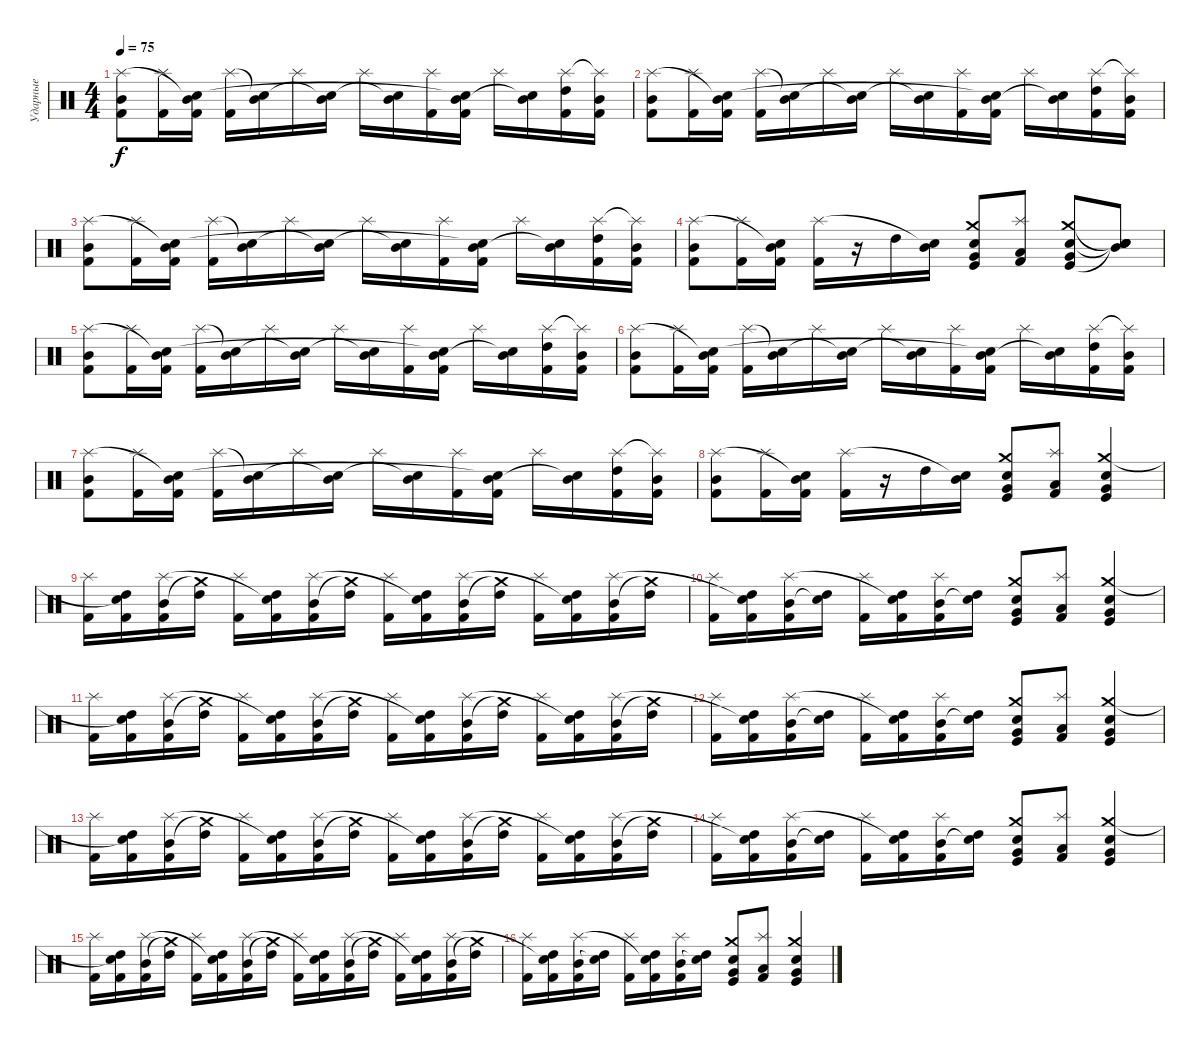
\track ("Ударные" "Ударные") {instrument percussion}
\staff {score}
\articulation defaults
\ts (4 4)
\tempo 75
\clef neutral
\ks c
("Kick (hit) 2" "Mid Tom (hit)" "Splash (hit)").8{dy f} ("Kick (hit) 2" "Splash (hit)").16 ("Kick (hit) 2" "Mid Tom (hit)" "Snare (hit)"{t}).16 ("Kick (hit) 2" "Splash (hit)").16 ("Mid Tom (hit)" "Snare (hit)"{t}).16 "Splash (hit)".16 ("Mid Tom (hit)" "Snare (hit)"{t}).16 "Splash (hit)".16 ("Mid Tom (hit)" "Snare (hit)"{t}).16 ("Kick (hit) 2" "Splash (hit)").16 ("Kick (hit) 2" "Mid Tom (hit)" "Snare (hit)"{t}).16 "Splash (hit)".16 ("Mid Tom (hit)" "Snare (hit)"{t}).16 ("Kick (hit) 2" "High Tom (hit)" "Splash (hit)").16 ("Kick (hit) 2" "Mid Tom (hit)" "Splash (hit)"{t}).16 |
("Kick (hit) 2" "Mid Tom (hit)" "Splash (hit)").8 ("Kick (hit) 2" "Splash (hit)").16 ("Kick (hit) 2" "Mid Tom (hit)" "Snare (hit)"{t}).16 ("Kick (hit) 2" "Splash (hit)").16 ("Mid Tom (hit)" "Snare (hit)"{t}).16 "Splash (hit)".16 ("Mid Tom (hit)" "Snare (hit)"{t}).16 "Splash (hit)".16 ("Mid Tom (hit)" "Snare (hit)"{t}).16 ("Kick (hit) 2" "Splash (hit)").16 ("Kick (hit) 2" "Mid Tom (hit)" "Snare (hit)"{t}).16 "Splash (hit)".16 ("Mid Tom (hit)" "Snare (hit)"{t}).16 ("Kick (hit) 2" "High Tom (hit)" "Splash (hit)").16 ("Kick (hit) 2" "Mid Tom (hit)" "Splash (hit)"{t}).16 |
("Kick (hit) 2" "Mid Tom (hit)" "Splash (hit)").8 ("Kick (hit) 2" "Splash (hit)").16 ("Kick (hit) 2" "Mid Tom (hit)" "Snare (hit)"{t}).16 ("Kick (hit) 2" "Splash (hit)").16 ("Mid Tom (hit)" "Snare (hit)"{t}).16 "Splash (hit)".16 ("Mid Tom (hit)" "Snare (hit)"{t}).16 "Splash (hit)".16 ("Mid Tom (hit)" "Snare (hit)"{t}).16 ("Kick (hit) 2" "Splash (hit)").16 ("Kick (hit) 2" "Mid Tom (hit)" "Snare (hit)"{t}).16 "Splash (hit)".16 ("Mid Tom (hit)" "Snare (hit)"{t}).16 ("Kick (hit) 2" "High Tom (hit)" "Splash (hit)").16 ("Kick (hit) 2" "Mid Tom (hit)" "Splash (hit)"{t}).16 |
("Kick (hit) 2" "Mid Tom (hit)" "Splash (hit)").8 ("Kick (hit) 2" "Splash (hit)").16 ("Kick (hit) 2" "Mid Tom (hit)" "Snare (hit)"{t}).16 ("Kick (hit) 2" "Splash (hit)").16 r.16 "High Tom (hit)".16 ("Mid Tom (hit)" "Snare (hit)"{t}).16 ("Kick (hit)" "Very Low Tom (hit)" "Crash medium (hit)" "Electric Snare (hit)").8 ("Kick (hit) 2" "Low Floor Tom (hit)" "Splash (hit)").8 ("Kick (hit)" "Very Low Tom (hit)" "Crash medium (hit)" "Electric Snare (hit)").8 ("Snare (hit)"{t} "Mid Tom (hit)" "Snare (hit)"{t} "Snare (hit)"{t}).8 |
("Kick (hit) 2" "Mid Tom (hit)" "Splash (hit)").8 ("Kick (hit) 2" "Splash (hit)").16 ("Kick (hit) 2" "Mid Tom (hit)" "Snare (hit)"{t}).16 ("Kick (hit) 2" "Splash (hit)").16 ("Mid Tom (hit)" "Snare (hit)"{t}).16 "Splash (hit)".16 ("Mid Tom (hit)" "Snare (hit)"{t}).16 "Splash (hit)".16 ("Mid Tom (hit)" "Snare (hit)"{t}).16 ("Kick (hit) 2" "Splash (hit)").16 ("Kick (hit) 2" "Mid Tom (hit)" "Snare (hit)"{t}).16 "Splash (hit)".16 ("Mid Tom (hit)" "Snare (hit)"{t}).16 ("Kick (hit) 2" "High Tom (hit)" "Splash (hit)").16 ("Kick (hit) 2" "Mid Tom (hit)" "Splash (hit)"{t}).16 |
("Kick (hit) 2" "Mid Tom (hit)" "Splash (hit)").8 ("Kick (hit) 2" "Splash (hit)").16 ("Kick (hit) 2" "Mid Tom (hit)" "Snare (hit)"{t}).16 ("Kick (hit) 2" "Splash (hit)").16 ("Mid Tom (hit)" "Snare (hit)"{t}).16 "Splash (hit)".16 ("Mid Tom (hit)" "Snare (hit)"{t}).16 "Splash (hit)".16 ("Mid Tom (hit)" "Snare (hit)"{t}).16 ("Kick (hit) 2" "Splash (hit)").16 ("Kick (hit) 2" "Mid Tom (hit)" "Snare (hit)"{t}).16 "Splash (hit)".16 ("Mid Tom (hit)" "Snare (hit)"{t}).16 ("Kick (hit) 2" "High Tom (hit)" "Splash (hit)").16 ("Kick (hit) 2" "Mid Tom (hit)" "Splash (hit)"{t}).16 |
("Kick (hit) 2" "Mid Tom (hit)" "Splash (hit)").8 ("Kick (hit) 2" "Splash (hit)").16 ("Kick (hit) 2" "Mid Tom (hit)" "Snare (hit)"{t}).16 ("Kick (hit) 2" "Splash (hit)").16 ("Mid Tom (hit)" "Snare (hit)"{t}).16 "Splash (hit)".16 ("Mid Tom (hit)" "Snare (hit)"{t}).16 "Splash (hit)".16 ("Mid Tom (hit)" "Snare (hit)"{t}).16 ("Kick (hit) 2" "Splash (hit)").16 ("Kick (hit) 2" "Mid Tom (hit)" "Snare (hit)"{t}).16 "Splash (hit)".16 ("Mid Tom (hit)" "Snare (hit)"{t}).16 ("Kick (hit) 2" "High Tom (hit)" "Splash (hit)").16 ("Kick (hit) 2" "Mid Tom (hit)" "Splash (hit)"{t}).16 |
("Kick (hit) 2" "Mid Tom (hit)" "Splash (hit)").8 ("Kick (hit) 2" "Splash (hit)").16 ("Kick (hit) 2" "Mid Tom (hit)" "Snare (hit)"{t}).16 ("Kick (hit) 2" "Splash (hit)").16 r.16 "High Tom (hit)".16 ("Mid Tom (hit)" "Snare (hit)"{t}).16 ("Kick (hit)" "Very Low Tom (hit)" "Crash medium (hit)" "Electric Snare (hit)").8 ("Kick (hit) 2" "Low Floor Tom (hit)" "Splash (hit)").8 ("Kick (hit)" "Very Low Tom (hit)" "Crash medium (hit)" "Electric Snare (hit)").4 |
("Kick (hit) 2" "Splash (hit)").16 ("Kick (hit) 2" "High Tom (hit)" "Snare (hit)"{t}).16 ("Kick (hit) 2" "Mid Tom (hit)" "Splash (hit)").16 ("High Tom (hit)" "Crash medium (hit)"{t}).16 ("Kick (hit) 2" "Splash (hit)").16 ("Kick (hit) 2" "High Tom (hit)" "Snare (hit)"{t}).16 ("Kick (hit) 2" "Mid Tom (hit)" "Splash (hit)").16 ("High Tom (hit)" "Crash medium (hit)"{t}).16 ("Kick (hit) 2" "Splash (hit)").16 ("Kick (hit) 2" "High Tom (hit)" "Snare (hit)"{t}).16 ("Kick (hit) 2" "Mid Tom (hit)" "Splash (hit)").16 ("High Tom (hit)" "Crash medium (hit)"{t}).16 ("Kick (hit) 2" "Splash (hit)").16 ("Kick (hit) 2" "High Tom (hit)" "Snare (hit)"{t}).16 ("Kick (hit) 2" "Mid Tom (hit)" "Splash (hit)").16 ("High Tom (hit)" "Crash medium (hit)"{t}).16 |
("Kick (hit) 2" "Splash (hit)").16 ("Kick (hit) 2" "High Tom (hit)" "Snare (hit)"{t}).16 ("Kick (hit) 2" "Mid Tom (hit)" "Splash (hit)").16 ("High Tom (hit)" "Snare (hit)"{t}).16 ("Kick (hit) 2" "Splash (hit)").16 ("Kick (hit) 2" "High Tom (hit)" "Snare (hit)"{t}).16 ("Kick (hit) 2" "Mid Tom (hit)" "Splash (hit)").16 ("High Tom (hit)" "Snare (hit)"{t}).16 ("Kick (hit)" "Very Low Tom (hit)" "Crash medium (hit)" "Electric Snare (hit)").8 ("Kick (hit) 2" "Low Floor Tom (hit)" "Splash (hit)").8 ("Kick (hit)" "Very Low Tom (hit)" "Crash medium (hit)" "Electric Snare (hit)").4 |
("Kick (hit) 2" "Splash (hit)").16 ("Kick (hit) 2" "High Tom (hit)" "Snare (hit)"{t}).16 ("Kick (hit) 2" "Mid Tom (hit)" "Splash (hit)").16 ("High Tom (hit)" "Crash medium (hit)"{t}).16 ("Kick (hit) 2" "Splash (hit)").16 ("Kick (hit) 2" "High Tom (hit)" "Snare (hit)"{t}).16 ("Kick (hit) 2" "Mid Tom (hit)" "Splash (hit)").16 ("High Tom (hit)" "Crash medium (hit)"{t}).16 ("Kick (hit) 2" "Splash (hit)").16 ("Kick (hit) 2" "High Tom (hit)" "Snare (hit)"{t}).16 ("Kick (hit) 2" "Mid Tom (hit)" "Splash (hit)").16 ("High Tom (hit)" "Crash medium (hit)"{t}).16 ("Kick (hit) 2" "Splash (hit)").16 ("Kick (hit) 2" "High Tom (hit)" "Snare (hit)"{t}).16 ("Kick (hit) 2" "Mid Tom (hit)" "Splash (hit)").16 ("High Tom (hit)" "Crash medium (hit)"{t}).16 |
("Kick (hit) 2" "Splash (hit)").16 ("Kick (hit) 2" "High Tom (hit)" "Snare (hit)"{t}).16 ("Kick (hit) 2" "Mid Tom (hit)" "Splash (hit)").16 ("High Tom (hit)" "Snare (hit)"{t}).16 ("Kick (hit) 2" "Splash (hit)").16 ("Kick (hit) 2" "High Tom (hit)" "Snare (hit)"{t}).16 ("Kick (hit) 2" "Mid Tom (hit)" "Splash (hit)").16 ("High Tom (hit)" "Snare (hit)"{t}).16 ("Kick (hit)" "Very Low Tom (hit)" "Crash medium (hit)" "Electric Snare (hit)").8 ("Kick (hit) 2" "Low Floor Tom (hit)" "Splash (hit)").8 ("Kick (hit)" "Very Low Tom (hit)" "Crash medium (hit)" "Electric Snare (hit)").4 |
("Kick (hit) 2" "Splash (hit)").16 ("Kick (hit) 2" "High Tom (hit)" "Snare (hit)"{t}).16 ("Kick (hit) 2" "Mid Tom (hit)" "Splash (hit)").16 ("High Tom (hit)" "Crash medium (hit)"{t}).16 ("Kick (hit) 2" "Splash (hit)").16 ("Kick (hit) 2" "High Tom (hit)" "Snare (hit)"{t}).16 ("Kick (hit) 2" "Mid Tom (hit)" "Splash (hit)").16 ("High Tom (hit)" "Crash medium (hit)"{t}).16 ("Kick (hit) 2" "Splash (hit)").16 ("Kick (hit) 2" "High Tom (hit)" "Snare (hit)"{t}).16 ("Kick (hit) 2" "Mid Tom (hit)" "Splash (hit)").16 ("High Tom (hit)" "Crash medium (hit)"{t}).16 ("Kick (hit) 2" "Splash (hit)").16 ("Kick (hit) 2" "High Tom (hit)" "Snare (hit)"{t}).16 ("Kick (hit) 2" "Mid Tom (hit)" "Splash (hit)").16 ("High Tom (hit)" "Crash medium (hit)"{t}).16 |
("Kick (hit) 2" "Splash (hit)").16 ("Kick (hit) 2" "High Tom (hit)" "Snare (hit)"{t}).16 ("Kick (hit) 2" "Mid Tom (hit)" "Splash (hit)").16 ("High Tom (hit)" "Snare (hit)"{t}).16 ("Kick (hit) 2" "Splash (hit)").16 ("Kick (hit) 2" "High Tom (hit)" "Snare (hit)"{t}).16 ("Kick (hit) 2" "Mid Tom (hit)" "Splash (hit)").16 ("High Tom (hit)" "Snare (hit)"{t}).16 ("Kick (hit)" "Very Low Tom (hit)" "Crash medium (hit)" "Electric Snare (hit)").8 ("Kick (hit) 2" "Low Floor Tom (hit)" "Splash (hit)").8 ("Kick (hit)" "Very Low Tom (hit)" "Crash medium (hit)" "Electric Snare (hit)").4 |
("Kick (hit) 2" "Splash (hit)").16 ("Kick (hit) 2" "High Tom (hit)" "Snare (hit)"{t}).16 ("Kick (hit) 2" "Mid Tom (hit)" "Splash (hit)").16 ("High Tom (hit)" "Crash medium (hit)"{t}).16 ("Kick (hit) 2" "Splash (hit)").16 ("Kick (hit) 2" "High Tom (hit)" "Snare (hit)"{t}).16 ("Kick (hit) 2" "Mid Tom (hit)" "Splash (hit)").16 ("High Tom (hit)" "Crash medium (hit)"{t}).16 ("Kick (hit) 2" "Splash (hit)").16 ("Kick (hit) 2" "High Tom (hit)" "Snare (hit)"{t}).16 ("Kick (hit) 2" "Mid Tom (hit)" "Splash (hit)").16 ("High Tom (hit)" "Crash medium (hit)"{t}).16 ("Kick (hit) 2" "Splash (hit)").16 ("Kick (hit) 2" "High Tom (hit)" "Snare (hit)"{t}).16 ("Kick (hit) 2" "Mid Tom (hit)" "Splash (hit)").16 ("High Tom (hit)" "Crash medium (hit)"{t}).16 |
("Kick (hit) 2" "Splash (hit)").16 ("Kick (hit) 2" "High Tom (hit)" "Snare (hit)"{t}).16 ("Kick (hit) 2" "Mid Tom (hit)" "Splash (hit)").16 ("High Tom (hit)" "Snare (hit)"{t}).16 ("Kick (hit) 2" "Splash (hit)").16 ("Kick (hit) 2" "High Tom (hit)" "Snare (hit)"{t}).16 ("Kick (hit) 2" "Mid Tom (hit)" "Splash (hit)").16 ("High Tom (hit)" "Snare (hit)"{t}).16 ("Kick (hit)" "Very Low Tom (hit)" "Crash medium (hit)" "Electric Snare (hit)").8 ("Kick (hit) 2" "Low Floor Tom (hit)" "Splash (hit)").8 ("Kick (hit)" "Very Low Tom (hit)" "Crash medium (hit)" "Electric Snare (hit)").4
